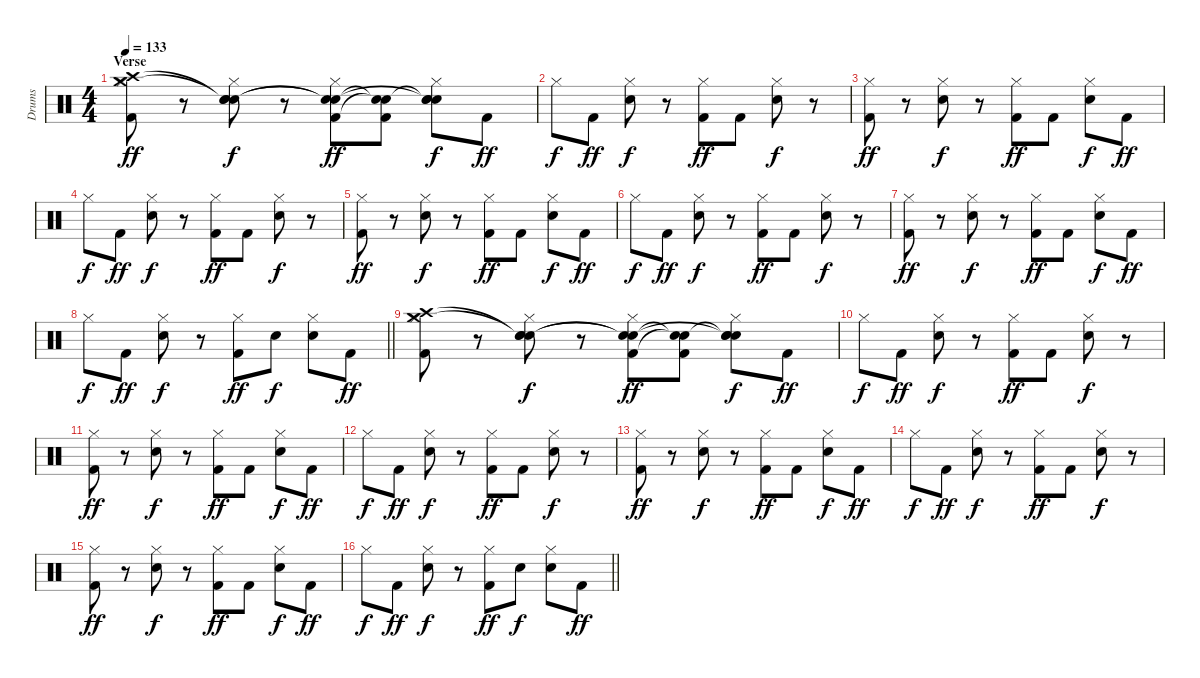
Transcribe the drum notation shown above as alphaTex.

\track ("Drums" "Drums") {instrument percussion}
\staff {score}
\articulation defaults
\ts (4 4)
\section ("" "Verse")
\tempo 133
\clef neutral
\ks c
("Hi-Hat (closed)" "Kick (hit) 2" "Crash medium (hit)" "Crash high (hit)").8{dy ff} r.8 ("Hi-Hat (closed)" "Snare (hit) 2" "Snare (hit)"{t} "Snare (hit)"{t}).8{dy f} r.8 ("Hi-Hat (closed)" "Kick (hit) 2" "Snare (hit)"{t} "Snare (hit)"{t}).8{dy ff} ("Kick (hit) 2" "Snare (hit)"{t} "Snare (hit)"{t}).8 ("Hi-Hat (closed)" "Snare (hit) 2" "Snare (hit)"{t} "Snare (hit)"{t}).8{dy f} "Kick (hit) 2".8{dy ff} |
"Hi-Hat (closed)".8{dy f} "Kick (hit) 2".8{dy ff} ("Hi-Hat (closed)" "Snare (hit) 2").8{dy f} r.8 ("Hi-Hat (closed)" "Kick (hit) 2").8{dy ff} "Kick (hit) 2".8 ("Hi-Hat (closed)" "Snare (hit) 2").8{dy f} r.8 |
("Hi-Hat (closed)" "Kick (hit) 2").8{dy ff} r.8 ("Hi-Hat (closed)" "Snare (hit) 2").8{dy f} r.8 ("Hi-Hat (closed)" "Kick (hit) 2").8{dy ff} "Kick (hit) 2".8 ("Hi-Hat (closed)" "Snare (hit) 2").8{dy f} "Kick (hit) 2".8{dy ff} |
"Hi-Hat (closed)".8{dy f} "Kick (hit) 2".8{dy ff} ("Hi-Hat (closed)" "Snare (hit) 2").8{dy f} r.8 ("Hi-Hat (closed)" "Kick (hit) 2").8{dy ff} "Kick (hit) 2".8 ("Hi-Hat (closed)" "Snare (hit) 2").8{dy f} r.8 |
("Hi-Hat (closed)" "Kick (hit) 2").8{dy ff} r.8 ("Hi-Hat (closed)" "Snare (hit) 2").8{dy f} r.8 ("Hi-Hat (closed)" "Kick (hit) 2").8{dy ff} "Kick (hit) 2".8 ("Hi-Hat (closed)" "Snare (hit) 2").8{dy f} "Kick (hit) 2".8{dy ff} |
"Hi-Hat (closed)".8{dy f} "Kick (hit) 2".8{dy ff} ("Hi-Hat (closed)" "Snare (hit) 2").8{dy f} r.8 ("Hi-Hat (closed)" "Kick (hit) 2").8{dy ff} "Kick (hit) 2".8 ("Hi-Hat (closed)" "Snare (hit) 2").8{dy f} r.8 |
("Hi-Hat (closed)" "Kick (hit) 2").8{dy ff} r.8 ("Hi-Hat (closed)" "Snare (hit) 2").8{dy f} r.8 ("Hi-Hat (closed)" "Kick (hit) 2").8{dy ff} "Kick (hit) 2".8 ("Hi-Hat (closed)" "Snare (hit) 2").8{dy f} "Kick (hit) 2".8{dy ff} |
\barLineRight lightlight "Hi-Hat (closed)".8{dy f} "Kick (hit) 2".8{dy ff}
("Hi-Hat (closed)" "Snare (hit) 2").8{dy f} r.8 ("Hi-Hat (closed)" "Kick (hit) 2").8{dy ff} "Snare (hit) 2".8{dy f} ("Hi-Hat (closed)" "Snare (hit) 2").8 "Kick (hit) 2".8{dy ff} |
("Hi-Hat (closed)" "Kick (hit) 2" "Crash medium (hit)" "Crash high (hit)").8 r.8 ("Hi-Hat (closed)" "Snare (hit) 2" "Snare (hit)"{t} "Snare (hit)"{t}).8{dy f} r.8 ("Hi-Hat (closed)" "Kick (hit) 2" "Snare (hit)"{t} "Snare (hit)"{t}).8{dy ff} ("Kick (hit) 2" "Snare (hit)"{t} "Snare (hit)"{t}).8 ("Hi-Hat (closed)" "Snare (hit) 2" "Snare (hit)"{t} "Snare (hit)"{t}).8{dy f} "Kick (hit) 2".8{dy ff} |
"Hi-Hat (closed)".8{dy f} "Kick (hit) 2".8{dy ff} ("Hi-Hat (closed)" "Snare (hit) 2").8{dy f} r.8 ("Hi-Hat (closed)" "Kick (hit) 2").8{dy ff} "Kick (hit) 2".8 ("Hi-Hat (closed)" "Snare (hit) 2").8{dy f} r.8 |
("Hi-Hat (closed)" "Kick (hit) 2").8{dy ff} r.8 ("Hi-Hat (closed)" "Snare (hit) 2").8{dy f} r.8 ("Hi-Hat (closed)" "Kick (hit) 2").8{dy ff} "Kick (hit) 2".8 ("Hi-Hat (closed)" "Snare (hit) 2").8{dy f} "Kick (hit) 2".8{dy ff} |
"Hi-Hat (closed)".8{dy f} "Kick (hit) 2".8{dy ff} ("Hi-Hat (closed)" "Snare (hit) 2").8{dy f} r.8 ("Hi-Hat (closed)" "Kick (hit) 2").8{dy ff} "Kick (hit) 2".8 ("Hi-Hat (closed)" "Snare (hit) 2").8{dy f} r.8 |
("Hi-Hat (closed)" "Kick (hit) 2").8{dy ff} r.8 ("Hi-Hat (closed)" "Snare (hit) 2").8{dy f} r.8 ("Hi-Hat (closed)" "Kick (hit) 2").8{dy ff} "Kick (hit) 2".8 ("Hi-Hat (closed)" "Snare (hit) 2").8{dy f} "Kick (hit) 2".8{dy ff} |
"Hi-Hat (closed)".8{dy f} "Kick (hit) 2".8{dy ff} ("Hi-Hat (closed)" "Snare (hit) 2").8{dy f} r.8 ("Hi-Hat (closed)" "Kick (hit) 2").8{dy ff} "Kick (hit) 2".8 ("Hi-Hat (closed)" "Snare (hit) 2").8{dy f} r.8 |
("Hi-Hat (closed)" "Kick (hit) 2").8{dy ff} r.8 ("Hi-Hat (closed)" "Snare (hit) 2").8{dy f} r.8 ("Hi-Hat (closed)" "Kick (hit) 2").8{dy ff} "Kick (hit) 2".8 ("Hi-Hat (closed)" "Snare (hit) 2").8{dy f} "Kick (hit) 2".8{dy ff} |
\barLineRight lightlight "Hi-Hat (closed)".8{dy f} "Kick (hit) 2".8{dy ff}
("Hi-Hat (closed)" "Snare (hit) 2").8{dy f} r.8 ("Hi-Hat (closed)" "Kick (hit) 2").8{dy ff} "Snare (hit) 2".8{dy f} ("Hi-Hat (closed)" "Snare (hit) 2").8 "Kick (hit) 2".8{dy ff}
